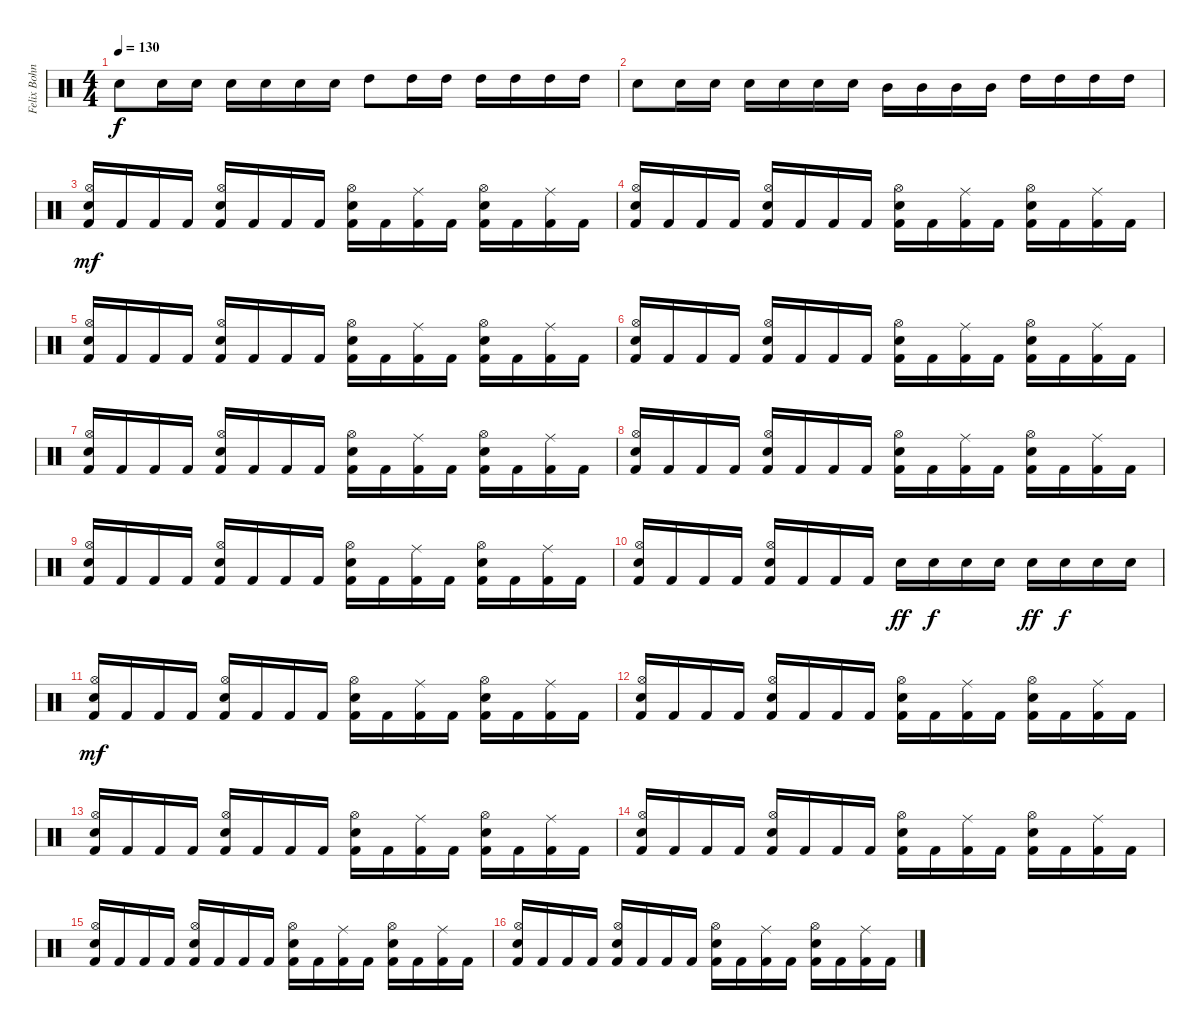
\track ("Felix Bohnke" "Felix Bohn") {instrument percussion}
\staff {score}
\articulation defaults
\ts (4 4)
\tempo 130
\clef neutral
\ks c "Electric Snare (hit)".8{dy f} "Electric Snare (hit)".16 "Electric Snare (hit)".16 "Electric Snare (hit)".16 "Electric Snare (hit)".16 "Electric Snare (hit)".16 "Electric Snare (hit)".16 "High Tom (hit)".8 "High Tom (hit)".16 "High Tom (hit)".16 "High Tom (hit)".16 "High Tom (hit)".16 "High Tom (hit)".16 "High Tom (hit)".16
|
"Electric Snare (hit)".8 "Electric Snare (hit)".16 "Electric Snare (hit)".16 "Electric Snare (hit)".16 "Electric Snare (hit)".16 "Electric Snare (hit)".16 "Electric Snare (hit)".16 "Mid Tom (hit)".16 "Mid Tom (hit)".16 "Mid Tom (hit)".16 "Mid Tom (hit)".16 "High Tom (hit)".16 "High Tom (hit)".16 "High Tom (hit)".16 "High Tom (hit)".16 |
("Hi-Hat (open)" "Electric Snare (hit)" "Kick (hit) 2").16{dy mf} "Kick (hit) 2".16 "Kick (hit) 2".16 "Kick (hit) 2".16 ("Hi-Hat (open)" "Electric Snare (hit)" "Kick (hit) 2").16 "Kick (hit) 2".16 "Kick (hit) 2".16 "Kick (hit) 2".16 ("Hi-Hat (open)" "Electric Snare (hit)" "Kick (hit) 2").16 "Kick (hit) 2".16 ("Ride (middle)" "Kick (hit) 2").16 "Kick (hit) 2".16 ("Hi-Hat (open)" "Electric Snare (hit)" "Kick (hit) 2").16 "Kick (hit) 2".16 ("Ride (middle)" "Kick (hit) 2").16 "Kick (hit) 2".16 |
("Hi-Hat (open)" "Electric Snare (hit)" "Kick (hit) 2").16 "Kick (hit) 2".16 "Kick (hit) 2".16 "Kick (hit) 2".16 ("Hi-Hat (open)" "Electric Snare (hit)" "Kick (hit) 2").16 "Kick (hit) 2".16 "Kick (hit) 2".16 "Kick (hit) 2".16 ("Hi-Hat (open)" "Electric Snare (hit)" "Kick (hit) 2").16 "Kick (hit) 2".16 ("Ride (middle)" "Kick (hit) 2").16 "Kick (hit) 2".16 ("Hi-Hat (open)" "Electric Snare (hit)" "Kick (hit) 2").16 "Kick (hit) 2".16 ("Ride (middle)" "Kick (hit) 2").16 "Kick (hit) 2".16 |
("Hi-Hat (open)" "Electric Snare (hit)" "Kick (hit) 2").16 "Kick (hit) 2".16 "Kick (hit) 2".16 "Kick (hit) 2".16 ("Hi-Hat (open)" "Electric Snare (hit)" "Kick (hit) 2").16 "Kick (hit) 2".16 "Kick (hit) 2".16 "Kick (hit) 2".16 ("Hi-Hat (open)" "Electric Snare (hit)" "Kick (hit) 2").16 "Kick (hit) 2".16 ("Ride (middle)" "Kick (hit) 2").16 "Kick (hit) 2".16 ("Hi-Hat (open)" "Electric Snare (hit)" "Kick (hit) 2").16 "Kick (hit) 2".16 ("Ride (middle)" "Kick (hit) 2").16 "Kick (hit) 2".16 |
("Hi-Hat (open)" "Electric Snare (hit)" "Kick (hit) 2").16 "Kick (hit) 2".16 "Kick (hit) 2".16 "Kick (hit) 2".16 ("Hi-Hat (open)" "Electric Snare (hit)" "Kick (hit) 2").16 "Kick (hit) 2".16 "Kick (hit) 2".16 "Kick (hit) 2".16 ("Hi-Hat (open)" "Electric Snare (hit)" "Kick (hit) 2").16 "Kick (hit) 2".16 ("Ride (middle)" "Kick (hit) 2").16 "Kick (hit) 2".16 ("Hi-Hat (open)" "Electric Snare (hit)" "Kick (hit) 2").16 "Kick (hit) 2".16 ("Ride (middle)" "Kick (hit) 2").16 "Kick (hit) 2".16 |
("Hi-Hat (open)" "Electric Snare (hit)" "Kick (hit) 2").16 "Kick (hit) 2".16 "Kick (hit) 2".16 "Kick (hit) 2".16 ("Hi-Hat (open)" "Electric Snare (hit)" "Kick (hit) 2").16 "Kick (hit) 2".16 "Kick (hit) 2".16 "Kick (hit) 2".16 ("Hi-Hat (open)" "Electric Snare (hit)" "Kick (hit) 2").16 "Kick (hit) 2".16 ("Ride (middle)" "Kick (hit) 2").16 "Kick (hit) 2".16 ("Hi-Hat (open)" "Electric Snare (hit)" "Kick (hit) 2").16 "Kick (hit) 2".16 ("Ride (middle)" "Kick (hit) 2").16 "Kick (hit) 2".16 |
("Hi-Hat (open)" "Electric Snare (hit)" "Kick (hit) 2").16 "Kick (hit) 2".16 "Kick (hit) 2".16 "Kick (hit) 2".16 ("Hi-Hat (open)" "Electric Snare (hit)" "Kick (hit) 2").16 "Kick (hit) 2".16 "Kick (hit) 2".16 "Kick (hit) 2".16 ("Hi-Hat (open)" "Electric Snare (hit)" "Kick (hit) 2").16 "Kick (hit) 2".16 ("Ride (middle)" "Kick (hit) 2").16 "Kick (hit) 2".16 ("Hi-Hat (open)" "Electric Snare (hit)" "Kick (hit) 2").16 "Kick (hit) 2".16 ("Ride (middle)" "Kick (hit) 2").16 "Kick (hit) 2".16 |
("Hi-Hat (open)" "Electric Snare (hit)" "Kick (hit) 2").16 "Kick (hit) 2".16 "Kick (hit) 2".16 "Kick (hit) 2".16 ("Hi-Hat (open)" "Electric Snare (hit)" "Kick (hit) 2").16 "Kick (hit) 2".16 "Kick (hit) 2".16 "Kick (hit) 2".16 ("Hi-Hat (open)" "Electric Snare (hit)" "Kick (hit) 2").16 "Kick (hit) 2".16 ("Ride (middle)" "Kick (hit) 2").16 "Kick (hit) 2".16 ("Hi-Hat (open)" "Electric Snare (hit)" "Kick (hit) 2").16 "Kick (hit) 2".16 ("Ride (middle)" "Kick (hit) 2").16 "Kick (hit) 2".16 |
("Hi-Hat (open)" "Electric Snare (hit)" "Kick (hit) 2").16 "Kick (hit) 2".16 "Kick (hit) 2".16 "Kick (hit) 2".16 ("Hi-Hat (open)" "Electric Snare (hit)" "Kick (hit) 2").16 "Kick (hit) 2".16 "Kick (hit) 2".16 "Kick (hit) 2".16 "Electric Snare (hit)".16{dy ff} "Electric Snare (hit)".16{dy f} "Electric Snare (hit)".16 "Electric Snare (hit)".16 "Electric Snare (hit)".16{dy ff} "Electric Snare (hit)".16{dy f} "Electric Snare (hit)".16 "Electric Snare (hit)".16 |
("Hi-Hat (open)" "Electric Snare (hit)" "Kick (hit) 2").16{dy mf} "Kick (hit) 2".16 "Kick (hit) 2".16 "Kick (hit) 2".16 ("Hi-Hat (open)" "Electric Snare (hit)" "Kick (hit) 2").16 "Kick (hit) 2".16 "Kick (hit) 2".16 "Kick (hit) 2".16 ("Hi-Hat (open)" "Electric Snare (hit)" "Kick (hit) 2").16 "Kick (hit) 2".16 ("Ride (middle)" "Kick (hit) 2").16 "Kick (hit) 2".16 ("Hi-Hat (open)" "Electric Snare (hit)" "Kick (hit) 2").16 "Kick (hit) 2".16 ("Ride (middle)" "Kick (hit) 2").16 "Kick (hit) 2".16 |
("Hi-Hat (open)" "Electric Snare (hit)" "Kick (hit) 2").16 "Kick (hit) 2".16 "Kick (hit) 2".16 "Kick (hit) 2".16 ("Hi-Hat (open)" "Electric Snare (hit)" "Kick (hit) 2").16 "Kick (hit) 2".16 "Kick (hit) 2".16 "Kick (hit) 2".16 ("Hi-Hat (open)" "Electric Snare (hit)" "Kick (hit) 2").16 "Kick (hit) 2".16 ("Ride (middle)" "Kick (hit) 2").16 "Kick (hit) 2".16 ("Hi-Hat (open)" "Electric Snare (hit)" "Kick (hit) 2").16 "Kick (hit) 2".16 ("Ride (middle)" "Kick (hit) 2").16 "Kick (hit) 2".16 |
("Hi-Hat (open)" "Electric Snare (hit)" "Kick (hit) 2").16 "Kick (hit) 2".16 "Kick (hit) 2".16 "Kick (hit) 2".16 ("Hi-Hat (open)" "Electric Snare (hit)" "Kick (hit) 2").16 "Kick (hit) 2".16 "Kick (hit) 2".16 "Kick (hit) 2".16 ("Hi-Hat (open)" "Electric Snare (hit)" "Kick (hit) 2").16 "Kick (hit) 2".16 ("Ride (middle)" "Kick (hit) 2").16 "Kick (hit) 2".16 ("Hi-Hat (open)" "Electric Snare (hit)" "Kick (hit) 2").16 "Kick (hit) 2".16 ("Ride (middle)" "Kick (hit) 2").16 "Kick (hit) 2".16 |
("Hi-Hat (open)" "Electric Snare (hit)" "Kick (hit) 2").16 "Kick (hit) 2".16 "Kick (hit) 2".16 "Kick (hit) 2".16 ("Hi-Hat (open)" "Electric Snare (hit)" "Kick (hit) 2").16 "Kick (hit) 2".16 "Kick (hit) 2".16 "Kick (hit) 2".16 ("Hi-Hat (open)" "Electric Snare (hit)" "Kick (hit) 2").16 "Kick (hit) 2".16 ("Ride (middle)" "Kick (hit) 2").16 "Kick (hit) 2".16 ("Hi-Hat (open)" "Electric Snare (hit)" "Kick (hit) 2").16 "Kick (hit) 2".16 ("Ride (middle)" "Kick (hit) 2").16 "Kick (hit) 2".16 |
("Hi-Hat (open)" "Electric Snare (hit)" "Kick (hit) 2").16 "Kick (hit) 2".16 "Kick (hit) 2".16 "Kick (hit) 2".16 ("Hi-Hat (open)" "Electric Snare (hit)" "Kick (hit) 2").16 "Kick (hit) 2".16 "Kick (hit) 2".16 "Kick (hit) 2".16 ("Hi-Hat (open)" "Electric Snare (hit)" "Kick (hit) 2").16 "Kick (hit) 2".16 ("Ride (middle)" "Kick (hit) 2").16 "Kick (hit) 2".16 ("Hi-Hat (open)" "Electric Snare (hit)" "Kick (hit) 2").16 "Kick (hit) 2".16 ("Ride (middle)" "Kick (hit) 2").16 "Kick (hit) 2".16 |
("Hi-Hat (open)" "Electric Snare (hit)" "Kick (hit) 2").16 "Kick (hit) 2".16 "Kick (hit) 2".16 "Kick (hit) 2".16 ("Hi-Hat (open)" "Electric Snare (hit)" "Kick (hit) 2").16 "Kick (hit) 2".16 "Kick (hit) 2".16 "Kick (hit) 2".16 ("Hi-Hat (open)" "Electric Snare (hit)" "Kick (hit) 2").16 "Kick (hit) 2".16 ("Ride (middle)" "Kick (hit) 2").16 "Kick (hit) 2".16 ("Hi-Hat (open)" "Electric Snare (hit)" "Kick (hit) 2").16 "Kick (hit) 2".16 ("Ride (middle)" "Kick (hit) 2").16 "Kick (hit) 2".16
